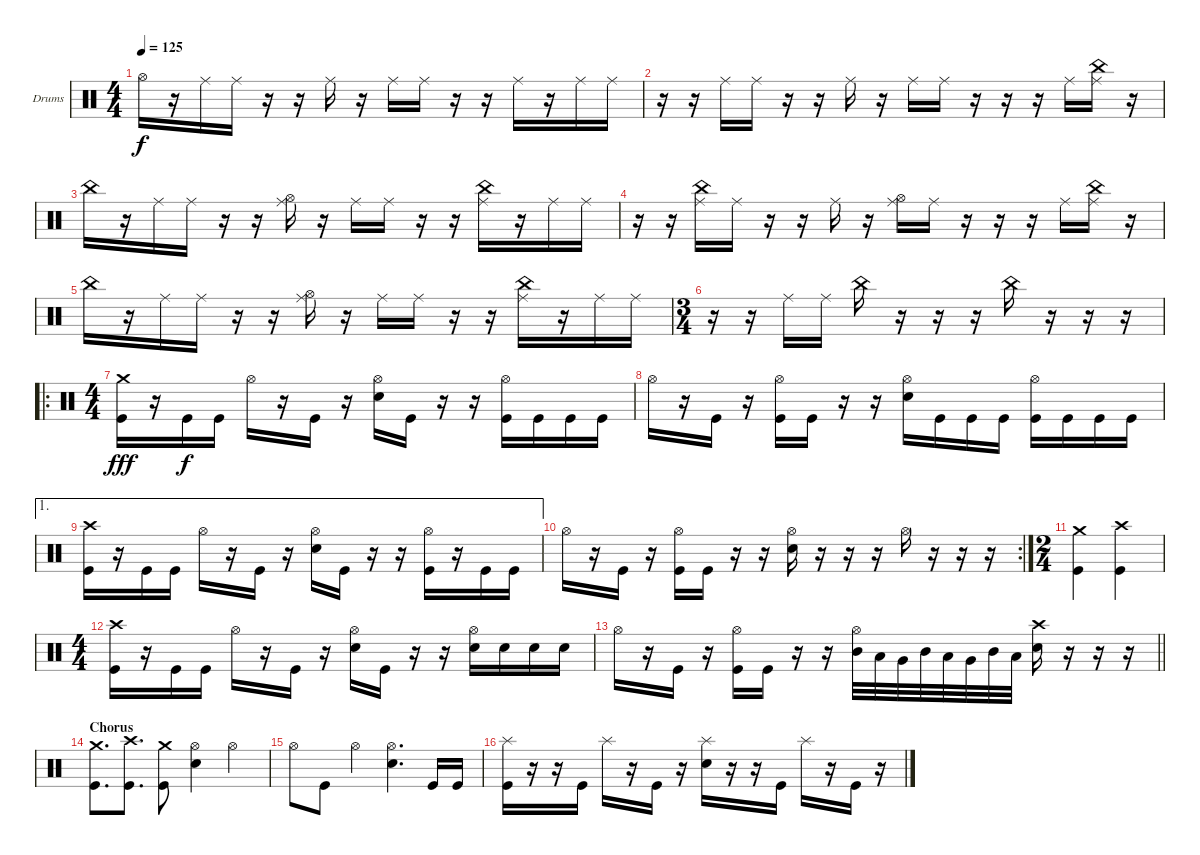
\bracketExtendMode groupsimilarinstruments
\firstSystemTrackNameOrientation horizontal
\otherSystemsTrackNameOrientation horizontal
\track ("Drumkit" "Drums") {instrument percussion}
\staff {score}
\articulation defaults
\ts (4 4)
\tempo 125
\clef neutral
\ks c "Hi-Hat (open)".16{dy f}
r.16 "Ride (middle)".16 "Ride (middle)".16 r.16 r.16 "Ride (middle)".16 r.16 "Ride (middle)".16 "Ride (middle)".16 r.16 r.16 "Ride (middle)".16 r.16 "Ride (middle)".16 "Ride (middle)".16 |
r.16 r.16 "Ride (middle)".16 "Ride (middle)".16 r.16 r.16 "Ride (middle)".16 r.16 "Ride (middle)".16 "Ride (middle)".16 r.16 r.16 r.16 "Ride (middle)".16 ("China (hit)" "Ride (middle)").16 r.16 |
"China (hit)".16 r.16 "Ride (middle)".16 "Ride (middle)".16 r.16 r.16 ("Hi-Hat (open)" "Ride (middle)").16 r.16 "Ride (middle)".16 "Ride (middle)".16 r.16 r.16 ("China (hit)" "Ride (middle)").16 r.16 "Ride (middle)".16 "Ride (middle)".16 |
r.16 r.16 ("China (hit)" "Ride (middle)").16 "Ride (middle)".16 r.16 r.16 "Ride (middle)".16 r.16 ("Hi-Hat (open)" "Ride (middle)").16 "Ride (middle)".16 r.16 r.16 r.16 "Ride (middle)".16 ("China (hit)" "Ride (middle)").16 r.16 |
"China (hit)".16 r.16 "Ride (middle)".16 "Ride (middle)".16 r.16 r.16 ("Hi-Hat (open)" "Ride (middle)").16 r.16 "Ride (middle)".16 "Ride (middle)".16 r.16 r.16 ("China (hit)" "Ride (middle)").16 r.16 "Ride (middle)".16 "Ride (middle)".16 |
\ts (3 4)
\beaming (8 2 2 2)
r.16 r.16 "Ride (middle)".16 "Ride (middle)".16 "China (hit)".16 r.16 r.16 r.16 "China (hit)".16 r.16 r.16 r.16 |
\ro
\ts (4 4)
\beaming (8 2 2 2 2)
("Crash medium (hit)" "Kick (hit)").16{dy fff} r.16 "Kick (hit)".16{dy f} "Kick (hit)".16 "Hi-Hat (open)".16 r.16 "Kick (hit)".16 r.16 ("Snare (hit) 2" "Hi-Hat (open)").16 "Kick (hit)".16 r.16 r.16 ("Kick (hit)" "Hi-Hat (open)").16 "Kick (hit)".16 "Kick (hit)".16 "Kick (hit)".16 |
"Hi-Hat (open)".16 r.16 "Kick (hit)".16 r.16 ("Kick (hit)" "Hi-Hat (open)").16 "Kick (hit)".16 r.16 r.16 ("Snare (hit) 2" "Hi-Hat (open)").16 "Kick (hit)".16 "Kick (hit)".16 "Kick (hit)".16 ("Kick (hit)" "Hi-Hat (open)").16 "Kick (hit)".16 "Kick (hit)".16 "Kick (hit)".16 |
\ae 1
("Crash high (hit)" "Kick (hit)").16 r.16 "Kick (hit)".16 "Kick (hit)".16 "Hi-Hat (open)".16 r.16 "Kick (hit)".16 r.16 ("Snare (hit) 2" "Hi-Hat (open)").16 "Kick (hit)".16 r.16 r.16 ("Kick (hit)" "Hi-Hat (open)").16 r.16 "Kick (hit)".16 "Kick (hit)".16 |
\rc 2 "Hi-Hat (open)".16
r.16 "Kick (hit)".16 r.16 ("Kick (hit)" "Hi-Hat (open)").16 "Kick (hit)".16 r.16 r.16 ("Snare (hit) 2" "Hi-Hat (open)").16 r.16 r.16 r.16 "Hi-Hat (open)".16 r.16 r.16 r.16 |
\ts (2 4)
\beaming (8 2 2)
("Crash medium (hit)" "Kick (hit)").4 ("Crash high (hit)" "Kick (hit)").4 |
\ts (4 4)
\beaming (8 2 2 2 2)
("Crash high (hit)" "Kick (hit)").16 r.16 "Kick (hit)".16 "Kick (hit)".16 "Hi-Hat (open)".16 r.16 "Kick (hit)".16 r.16 ("Snare (hit) 2" "Hi-Hat (open)").16 "Kick (hit)".16 r.16 r.16 ("Snare (hit) 2" "Hi-Hat (open)").16 "Snare (hit) 2".16 "Snare (hit) 2".16 "Snare (hit) 2".16 |
\barLineRight lightlight "Hi-Hat (open)".16
r.16 "Kick (hit)".16 r.16 ("Kick (hit)" "Hi-Hat (open)").16 "Kick (hit)".16 r.16 r.16 ("Mid Tom (hit)" "Hi-Hat (open)").32 "Low Tom (hit)".32 "Very Low Tom (hit)".32 "Mid Tom (hit)".32 "Low Tom (hit)".32 "Very Low Tom (hit)".32 "Mid Tom (hit)".32 "Low Tom (hit)".32 ("Crash high (hit)" "Snare (hit) 2").16 r.16 r.16 r.16 |
\section ("" "Chorus")
("Crash medium (hit)" "Kick (hit)").8{d} ("Crash high (hit)" "Kick (hit)").8{d} ("Crash medium (hit)" "Kick (hit)").8 ("Snare (hit) 2" "Hi-Hat (open)").4 "Hi-Hat (open)".4 |
"Hi-Hat (open)".8 "Kick (hit)".8 "Hi-Hat (open)".4 ("Snare (hit) 2" "Hi-Hat (open)").4{d} "Kick (hit)".16 "Kick (hit)".16 |
("Kick (hit)" "Splash (hit)").16 r.16 r.16 "Kick (hit)".16 "Splash (hit)".16 r.16 "Kick (hit)".16 r.16 ("Snare (hit) 2" "Splash (hit)").16 r.16 r.16 "Kick (hit)".16 "Splash (hit)".16 r.16 "Kick (hit)".16 r.16
